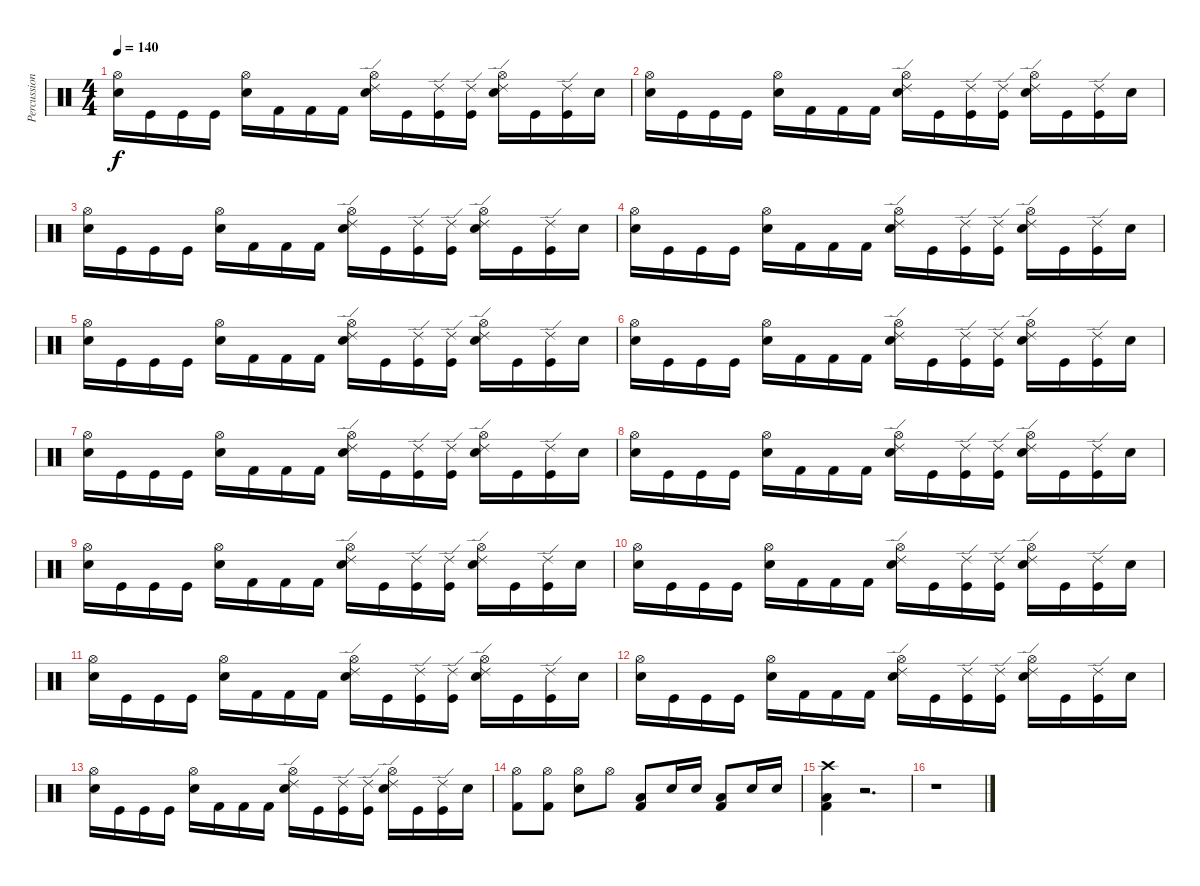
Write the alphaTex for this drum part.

\track ("Percussion" "Percussion") {instrument percussion}
\staff {score}
\articulation defaults
\ts (4 4)
\tempo 140
\clef neutral
\ks c
("Hi-Hat (open)" "Snare (hit) 2").16{dy f} "Kick (hit)".16 "Kick (hit)".16 "Kick (hit)".16 ("Hi-Hat (open)" "Snare (hit) 2").16 "Kick (hit) 2".16 "Kick (hit) 2".16 "Kick (hit) 2".16 ("Hi-Hat (open)" "Snare (hit) 2" "Ride (edge) 2").16 "Kick (hit)".16 ("Kick (hit)" "Ride (edge) 2").16 ("Kick (hit)" "Ride (edge) 2").16 ("Hi-Hat (open)" "Snare (hit) 2" "Ride (edge) 2").16 "Kick (hit)".16 ("Kick (hit)" "Ride (edge) 2").16 "Snare (hit) 2".16 |
("Hi-Hat (open)" "Snare (hit) 2").16 "Kick (hit)".16 "Kick (hit)".16 "Kick (hit)".16 ("Hi-Hat (open)" "Snare (hit) 2").16 "Kick (hit) 2".16 "Kick (hit) 2".16 "Kick (hit) 2".16 ("Hi-Hat (open)" "Snare (hit) 2" "Ride (edge) 2").16 "Kick (hit)".16 ("Kick (hit)" "Ride (edge) 2").16 ("Kick (hit)" "Ride (edge) 2").16 ("Hi-Hat (open)" "Snare (hit) 2" "Ride (edge) 2").16 "Kick (hit)".16 ("Kick (hit)" "Ride (edge) 2").16 "Snare (hit) 2".16 |
("Hi-Hat (open)" "Snare (hit) 2").16 "Kick (hit)".16 "Kick (hit)".16 "Kick (hit)".16 ("Hi-Hat (open)" "Snare (hit) 2").16 "Kick (hit) 2".16 "Kick (hit) 2".16 "Kick (hit) 2".16 ("Hi-Hat (open)" "Snare (hit) 2" "Ride (edge) 2").16 "Kick (hit)".16 ("Kick (hit)" "Ride (edge) 2").16 ("Kick (hit)" "Ride (edge) 2").16 ("Hi-Hat (open)" "Snare (hit) 2" "Ride (edge) 2").16 "Kick (hit)".16 ("Kick (hit)" "Ride (edge) 2").16 "Snare (hit) 2".16 |
("Hi-Hat (open)" "Snare (hit) 2").16 "Kick (hit)".16 "Kick (hit)".16 "Kick (hit)".16 ("Hi-Hat (open)" "Snare (hit) 2").16 "Kick (hit) 2".16 "Kick (hit) 2".16 "Kick (hit) 2".16 ("Hi-Hat (open)" "Snare (hit) 2" "Ride (edge) 2").16 "Kick (hit)".16 ("Kick (hit)" "Ride (edge) 2").16 ("Kick (hit)" "Ride (edge) 2").16 ("Hi-Hat (open)" "Snare (hit) 2" "Ride (edge) 2").16 "Kick (hit)".16 ("Kick (hit)" "Ride (edge) 2").16 "Snare (hit) 2".16 |
("Hi-Hat (open)" "Snare (hit) 2").16 "Kick (hit)".16 "Kick (hit)".16 "Kick (hit)".16 ("Hi-Hat (open)" "Snare (hit) 2").16 "Kick (hit) 2".16 "Kick (hit) 2".16 "Kick (hit) 2".16 ("Hi-Hat (open)" "Snare (hit) 2" "Ride (edge) 2").16 "Kick (hit)".16 ("Kick (hit)" "Ride (edge) 2").16 ("Kick (hit)" "Ride (edge) 2").16 ("Hi-Hat (open)" "Snare (hit) 2" "Ride (edge) 2").16 "Kick (hit)".16 ("Kick (hit)" "Ride (edge) 2").16 "Snare (hit) 2".16 |
("Hi-Hat (open)" "Snare (hit) 2").16 "Kick (hit)".16 "Kick (hit)".16 "Kick (hit)".16 ("Hi-Hat (open)" "Snare (hit) 2").16 "Kick (hit) 2".16 "Kick (hit) 2".16 "Kick (hit) 2".16 ("Hi-Hat (open)" "Snare (hit) 2" "Ride (edge) 2").16 "Kick (hit)".16 ("Kick (hit)" "Ride (edge) 2").16 ("Kick (hit)" "Ride (edge) 2").16 ("Hi-Hat (open)" "Snare (hit) 2" "Ride (edge) 2").16 "Kick (hit)".16 ("Kick (hit)" "Ride (edge) 2").16 "Snare (hit) 2".16 |
("Hi-Hat (open)" "Snare (hit) 2").16 "Kick (hit)".16 "Kick (hit)".16 "Kick (hit)".16 ("Hi-Hat (open)" "Snare (hit) 2").16 "Kick (hit) 2".16 "Kick (hit) 2".16 "Kick (hit) 2".16 ("Hi-Hat (open)" "Snare (hit) 2" "Ride (edge) 2").16 "Kick (hit)".16 ("Kick (hit)" "Ride (edge) 2").16 ("Kick (hit)" "Ride (edge) 2").16 ("Hi-Hat (open)" "Snare (hit) 2" "Ride (edge) 2").16 "Kick (hit)".16 ("Kick (hit)" "Ride (edge) 2").16 "Snare (hit) 2".16 |
("Hi-Hat (open)" "Snare (hit) 2").16 "Kick (hit)".16 "Kick (hit)".16 "Kick (hit)".16 ("Hi-Hat (open)" "Snare (hit) 2").16 "Kick (hit) 2".16 "Kick (hit) 2".16 "Kick (hit) 2".16 ("Hi-Hat (open)" "Snare (hit) 2" "Ride (edge) 2").16 "Kick (hit)".16 ("Kick (hit)" "Ride (edge) 2").16 ("Kick (hit)" "Ride (edge) 2").16 ("Hi-Hat (open)" "Snare (hit) 2" "Ride (edge) 2").16 "Kick (hit)".16 ("Kick (hit)" "Ride (edge) 2").16 "Snare (hit) 2".16 |
("Hi-Hat (open)" "Snare (hit) 2").16 "Kick (hit)".16 "Kick (hit)".16 "Kick (hit)".16 ("Hi-Hat (open)" "Snare (hit) 2").16 "Kick (hit) 2".16 "Kick (hit) 2".16 "Kick (hit) 2".16 ("Hi-Hat (open)" "Snare (hit) 2" "Ride (edge) 2").16 "Kick (hit)".16 ("Kick (hit)" "Ride (edge) 2").16 ("Kick (hit)" "Ride (edge) 2").16 ("Hi-Hat (open)" "Snare (hit) 2" "Ride (edge) 2").16 "Kick (hit)".16 ("Kick (hit)" "Ride (edge) 2").16 "Snare (hit) 2".16 |
("Hi-Hat (open)" "Snare (hit) 2").16 "Kick (hit)".16 "Kick (hit)".16 "Kick (hit)".16 ("Hi-Hat (open)" "Snare (hit) 2").16 "Kick (hit) 2".16 "Kick (hit) 2".16 "Kick (hit) 2".16 ("Hi-Hat (open)" "Snare (hit) 2" "Ride (edge) 2").16 "Kick (hit)".16 ("Kick (hit)" "Ride (edge) 2").16 ("Kick (hit)" "Ride (edge) 2").16 ("Hi-Hat (open)" "Snare (hit) 2" "Ride (edge) 2").16 "Kick (hit)".16 ("Kick (hit)" "Ride (edge) 2").16 "Snare (hit) 2".16 |
("Hi-Hat (open)" "Snare (hit) 2").16 "Kick (hit)".16 "Kick (hit)".16 "Kick (hit)".16 ("Hi-Hat (open)" "Snare (hit) 2").16 "Kick (hit) 2".16 "Kick (hit) 2".16 "Kick (hit) 2".16 ("Hi-Hat (open)" "Snare (hit) 2" "Ride (edge) 2").16 "Kick (hit)".16 ("Kick (hit)" "Ride (edge) 2").16 ("Kick (hit)" "Ride (edge) 2").16 ("Hi-Hat (open)" "Snare (hit) 2" "Ride (edge) 2").16 "Kick (hit)".16 ("Kick (hit)" "Ride (edge) 2").16 "Snare (hit) 2".16 |
("Hi-Hat (open)" "Snare (hit) 2").16 "Kick (hit)".16 "Kick (hit)".16 "Kick (hit)".16 ("Hi-Hat (open)" "Snare (hit) 2").16 "Kick (hit) 2".16 "Kick (hit) 2".16 "Kick (hit) 2".16 ("Hi-Hat (open)" "Snare (hit) 2" "Ride (edge) 2").16 "Kick (hit)".16 ("Kick (hit)" "Ride (edge) 2").16 ("Kick (hit)" "Ride (edge) 2").16 ("Hi-Hat (open)" "Snare (hit) 2" "Ride (edge) 2").16 "Kick (hit)".16 ("Kick (hit)" "Ride (edge) 2").16 "Snare (hit) 2".16 |
("Hi-Hat (open)" "Snare (hit) 2").16 "Kick (hit)".16 "Kick (hit)".16 "Kick (hit)".16 ("Hi-Hat (open)" "Snare (hit) 2").16 "Kick (hit) 2".16 "Kick (hit) 2".16 "Kick (hit) 2".16 ("Hi-Hat (open)" "Snare (hit) 2" "Ride (edge) 2").16 "Kick (hit)".16 ("Kick (hit)" "Ride (edge) 2").16 ("Kick (hit)" "Ride (edge) 2").16 ("Hi-Hat (open)" "Snare (hit) 2" "Ride (edge) 2").16 "Kick (hit)".16 ("Kick (hit)" "Ride (edge) 2").16 "Snare (hit) 2".16 |
("Hi-Hat (open)" "Kick (hit) 2").8 ("Hi-Hat (open)" "Kick (hit) 2").8 ("Hi-Hat (open)" "Snare (hit) 2").8 "Hi-Hat (open)".8 ("Low Tom (hit)" "Kick (hit) 2").8 "Snare (hit) 2".16 "Snare (hit) 2".16 ("Low Tom (hit)" "Kick (hit) 2").8 "Snare (hit) 2".16 "Snare (hit) 2".16 |
("Crash high (hit)" "Low Tom (hit)" "Kick (hit) 2").4 r.2{d} |
r.1
